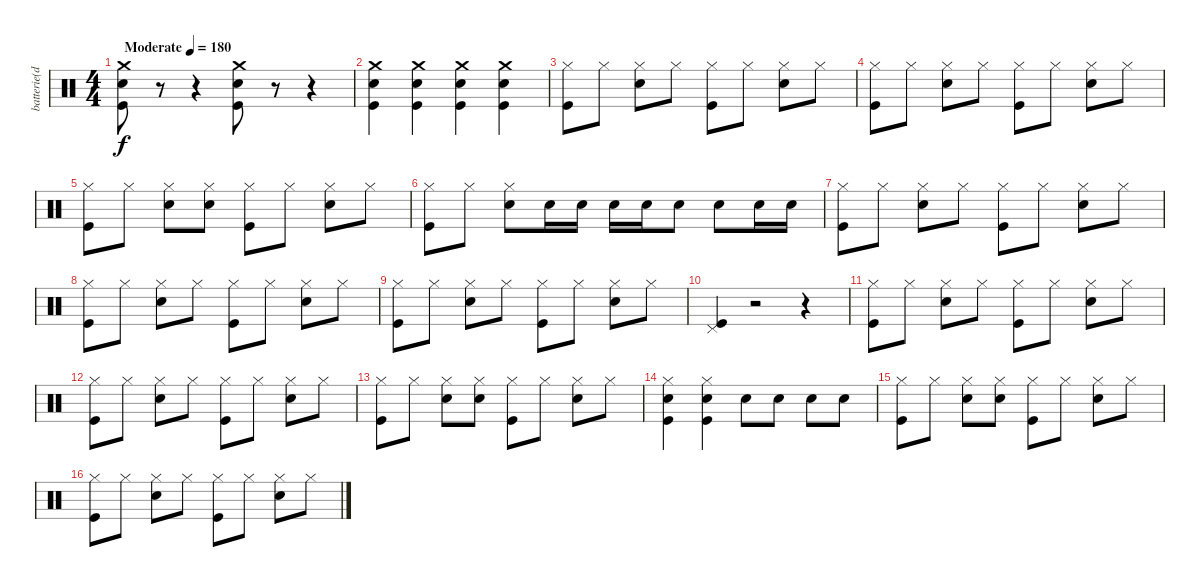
\track ("batterie(dave)" "batterie(d") {instrument percussion}
\staff {score}
\articulation defaults
\ts (4 4)
\tempo (180 "Moderate")
\clef neutral
\ks c
("Crash medium (hit)" "Snare (hit) 2" "Kick (hit)").8{dy f} r.8 r.4 ("Crash medium (hit)" "Snare (hit) 2" "Kick (hit)").8 r.8 r.4 |
("Crash medium (hit)" "Snare (hit) 2" "Kick (hit)").4 ("Crash medium (hit)" "Snare (hit) 2" "Kick (hit)").4 ("Crash medium (hit)" "Snare (hit) 2" "Kick (hit)").4 ("Crash medium (hit)" "Snare (hit) 2" "Kick (hit)").4 |
("Hi-Hat (closed)" "Kick (hit)").8 "Hi-Hat (closed)".8 ("Hi-Hat (closed)" "Snare (hit) 2").8 "Hi-Hat (closed)".8 ("Hi-Hat (closed)" "Kick (hit)").8 "Hi-Hat (closed)".8 ("Hi-Hat (closed)" "Snare (hit) 2").8 "Hi-Hat (closed)".8 |
("Hi-Hat (closed)" "Kick (hit)").8 "Hi-Hat (closed)".8 ("Hi-Hat (closed)" "Snare (hit) 2").8 "Hi-Hat (closed)".8 ("Hi-Hat (closed)" "Kick (hit)").8 "Hi-Hat (closed)".8 ("Hi-Hat (closed)" "Snare (hit) 2").8 "Hi-Hat (closed)".8 |
("Hi-Hat (closed)" "Kick (hit)").8 "Hi-Hat (closed)".8 ("Hi-Hat (closed)" "Snare (hit) 2").8 ("Hi-Hat (closed)" "Snare (hit) 2").8 ("Hi-Hat (closed)" "Kick (hit)").8 "Hi-Hat (closed)".8 ("Hi-Hat (closed)" "Snare (hit) 2").8 "Hi-Hat (closed)".8 |
("Hi-Hat (closed)" "Kick (hit)").8 "Hi-Hat (closed)".8 ("Hi-Hat (closed)" "Snare (hit) 2").8 "Snare (hit) 2".16 "Snare (hit) 2".16 "Snare (hit) 2".16 "Snare (hit) 2".16 "Snare (hit) 2".8 "Snare (hit) 2".8 "Snare (hit) 2".16 "Snare (hit) 2".16 |
("Hi-Hat (closed)" "Kick (hit)").8 "Hi-Hat (closed)".8 ("Hi-Hat (closed)" "Snare (hit) 2").8 "Hi-Hat (closed)".8 ("Hi-Hat (closed)" "Kick (hit)").8 "Hi-Hat (closed)".8 ("Hi-Hat (closed)" "Snare (hit) 2").8 "Hi-Hat (closed)".8 |
("Hi-Hat (closed)" "Kick (hit)").8 "Hi-Hat (closed)".8 ("Hi-Hat (closed)" "Snare (hit) 2").8 "Hi-Hat (closed)".8 ("Hi-Hat (closed)" "Kick (hit)").8 "Hi-Hat (closed)".8 ("Hi-Hat (closed)" "Snare (hit) 2").8 "Hi-Hat (closed)".8 |
("Hi-Hat (closed)" "Kick (hit)").8 "Hi-Hat (closed)".8 ("Hi-Hat (closed)" "Snare (hit) 2").8 "Hi-Hat (closed)".8 ("Hi-Hat (closed)" "Kick (hit)").8 "Hi-Hat (closed)".8 ("Hi-Hat (closed)" "Snare (hit) 2").8 "Hi-Hat (closed)".8 |
("Pedal Hi-Hat (hit)" "Kick (hit)").4 r.2 r.4 |
("Hi-Hat (closed)" "Kick (hit)").8 "Hi-Hat (closed)".8 ("Hi-Hat (closed)" "Snare (hit) 2").8 "Hi-Hat (closed)".8 ("Hi-Hat (closed)" "Kick (hit)").8 "Hi-Hat (closed)".8 ("Hi-Hat (closed)" "Snare (hit) 2").8 "Hi-Hat (closed)".8 |
("Hi-Hat (closed)" "Kick (hit)").8 "Hi-Hat (closed)".8 ("Hi-Hat (closed)" "Snare (hit) 2").8 "Hi-Hat (closed)".8 ("Hi-Hat (closed)" "Kick (hit)").8 "Hi-Hat (closed)".8 ("Hi-Hat (closed)" "Snare (hit) 2").8 "Hi-Hat (closed)".8 |
("Hi-Hat (closed)" "Kick (hit)").8 "Hi-Hat (closed)".8 ("Hi-Hat (closed)" "Snare (hit) 2").8 ("Hi-Hat (closed)" "Snare (hit) 2").8 ("Hi-Hat (closed)" "Kick (hit)").8 "Hi-Hat (closed)".8 ("Hi-Hat (closed)" "Snare (hit) 2").8 "Hi-Hat (closed)".8 |
("Hi-Hat (closed)" "Snare (hit) 2" "Kick (hit)").4 ("Hi-Hat (closed)" "Snare (hit) 2" "Kick (hit)").4 "Snare (hit) 2".8 "Snare (hit) 2".8 "Snare (hit) 2".8 "Snare (hit) 2".8 |
("Hi-Hat (closed)" "Kick (hit)").8 "Hi-Hat (closed)".8 ("Hi-Hat (closed)" "Snare (hit) 2").8 ("Hi-Hat (closed)" "Snare (hit) 2").8 ("Hi-Hat (closed)" "Kick (hit)").8 "Hi-Hat (closed)".8 ("Hi-Hat (closed)" "Snare (hit) 2").8 "Hi-Hat (closed)".8 |
("Hi-Hat (closed)" "Kick (hit)").8 "Hi-Hat (closed)".8 ("Hi-Hat (closed)" "Snare (hit) 2").8 "Hi-Hat (closed)".8 ("Hi-Hat (closed)" "Kick (hit)").8 "Hi-Hat (closed)".8 ("Hi-Hat (closed)" "Snare (hit) 2").8 "Hi-Hat (closed)".8
